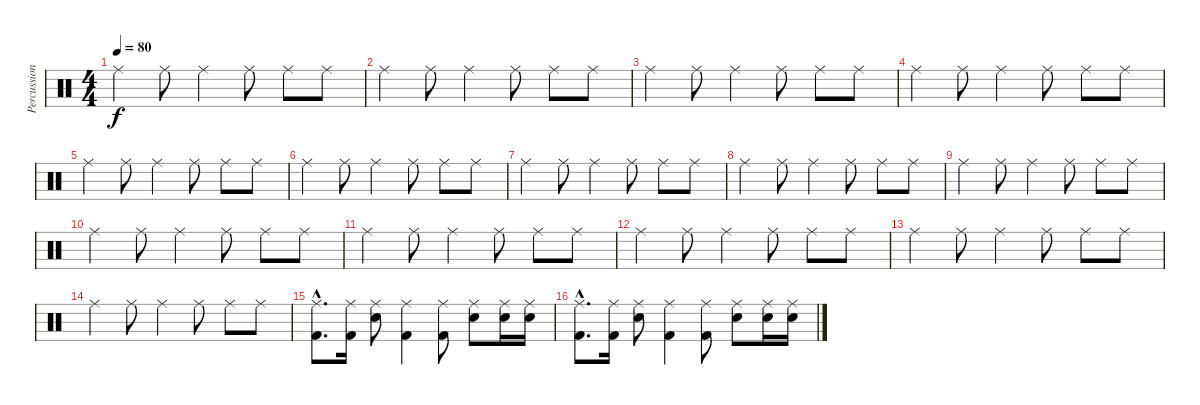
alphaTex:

\track ("Percussion" "Percussion") {instrument percussion}
\staff {score}
\articulation defaults
\ts (4 4)
\tempo 80
\clef neutral
\ks c "Ride (middle)".4{dy f} "Ride (middle)".8 "Ride (middle)".4 "Ride (middle)".8 "Ride (middle)".8 "Ride (middle)".8
|
"Ride (middle)".4 "Ride (middle)".8 "Ride (middle)".4 "Ride (middle)".8 "Ride (middle)".8 "Ride (middle)".8 |
"Ride (middle)".4 "Ride (middle)".8 "Ride (middle)".4 "Ride (middle)".8 "Ride (middle)".8 "Ride (middle)".8 |
"Ride (middle)".4 "Ride (middle)".8 "Ride (middle)".4 "Ride (middle)".8 "Ride (middle)".8 "Ride (middle)".8 |
"Ride (middle)".4 "Ride (middle)".8 "Ride (middle)".4 "Ride (middle)".8 "Ride (middle)".8 "Ride (middle)".8 |
"Ride (middle)".4 "Ride (middle)".8 "Ride (middle)".4 "Ride (middle)".8 "Ride (middle)".8 "Ride (middle)".8 |
"Ride (middle)".4 "Ride (middle)".8 "Ride (middle)".4 "Ride (middle)".8 "Ride (middle)".8 "Ride (middle)".8 |
"Ride (middle)".4 "Ride (middle)".8 "Ride (middle)".4 "Ride (middle)".8 "Ride (middle)".8 "Ride (middle)".8 |
"Ride (middle)".4 "Ride (middle)".8 "Ride (middle)".4 "Ride (middle)".8 "Ride (middle)".8 "Ride (middle)".8 |
"Ride (middle)".4 "Ride (middle)".8 "Ride (middle)".4 "Ride (middle)".8 "Ride (middle)".8 "Ride (middle)".8 |
"Ride (middle)".4 "Ride (middle)".8 "Ride (middle)".4 "Ride (middle)".8 "Ride (middle)".8 "Ride (middle)".8 |
"Ride (middle)".4 "Ride (middle)".8 "Ride (middle)".4 "Ride (middle)".8 "Ride (middle)".8 "Ride (middle)".8 |
"Ride (middle)".4 "Ride (middle)".8 "Ride (middle)".4 "Ride (middle)".8 "Ride (middle)".8 "Ride (middle)".8 |
"Ride (middle)".4 "Ride (middle)".8 "Ride (middle)".4 "Ride (middle)".8 "Ride (middle)".8 "Ride (middle)".8 |
("Ride (middle)"{hac} "Kick (hit) 2"{hac}).8{d} ("Ride (middle)" "Kick (hit) 2").16 ("Ride (middle)" "Electric Snare (hit)").8 ("Ride (middle)" "Kick (hit) 2").4 ("Ride (middle)" "Kick (hit) 2").8 ("Ride (middle)" "Electric Snare (hit)").8 ("Ride (middle)" "Electric Snare (hit)").16 ("Ride (middle)" "Electric Snare (hit)").16 |
("Ride (middle)"{hac} "Kick (hit) 2"{hac}).8{d} ("Ride (middle)" "Kick (hit) 2").16 ("Ride (middle)" "Electric Snare (hit)").8 ("Ride (middle)" "Kick (hit) 2").4 ("Ride (middle)" "Kick (hit) 2").8 ("Ride (middle)" "Electric Snare (hit)").8 ("Ride (middle)" "Electric Snare (hit)").16 ("Ride (middle)" "Electric Snare (hit)").16
